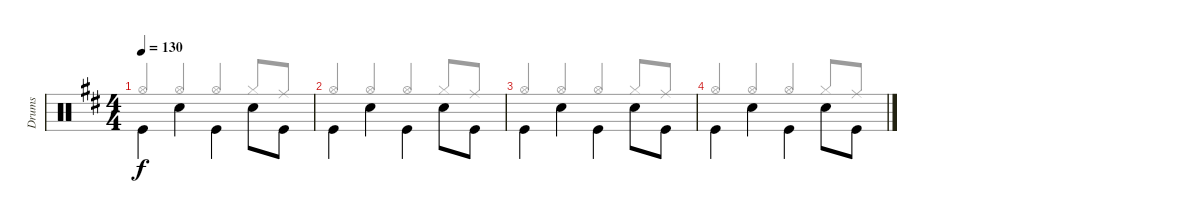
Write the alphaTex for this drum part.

\track ("Drums" "Drums") {instrument percussion}
\staff {score}
\articulation defaults
\voice
\ts (4 4)
\tempo 130
\clef neutral
\ks d "Kick (hit)".4{dy f beam Down} "Snare (hit) 2".4{beam Down} "Kick (hit)".4{beam Down} "Snare (hit) 2".8{beam Down} "Kick (hit)".8{beam Down}
|
"Kick (hit)".4{beam Down} "Snare (hit) 2".4{beam Down} "Kick (hit)".4{beam Down} "Snare (hit) 2".8{beam Down} "Kick (hit)".8{beam Down} |
"Kick (hit)".4{beam Down} "Snare (hit) 2".4{beam Down} "Kick (hit)".4{beam Down} "Snare (hit) 2".8{beam Down} "Kick (hit)".8{beam Down} |
"Kick (hit)".4{beam Down} "Snare (hit) 2".4{beam Down} "Kick (hit)".4{beam Down} "Snare (hit) 2".8{beam Down} "Kick (hit)".8{beam Down}
\voice
\clef neutral
\ottava regular
\simile none
\ks d "Hi-Hat (open)".4{dy f beam Up} "Hi-Hat (open)".4{beam Up} "Hi-Hat (open)".4{beam Up} "Hi-Hat (closed)".8{beam Up} "Ride (middle)".8{beam Up}
|
"Hi-Hat (open)".4{beam Up} "Hi-Hat (open)".4{beam Up} "Hi-Hat (open)".4{beam Up} "Hi-Hat (closed)".8{beam Up} "Ride (middle)".8{beam Up} |
"Hi-Hat (open)".4{beam Up} "Hi-Hat (open)".4{beam Up} "Hi-Hat (open)".4{beam Up} "Hi-Hat (closed)".8{beam Up} "Ride (middle)".8{beam Up} |
"Hi-Hat (open)".4{beam Up} "Hi-Hat (open)".4{beam Up} "Hi-Hat (open)".4{beam Up} "Hi-Hat (closed)".8{beam Up} "Ride (middle)".8{beam Up}
